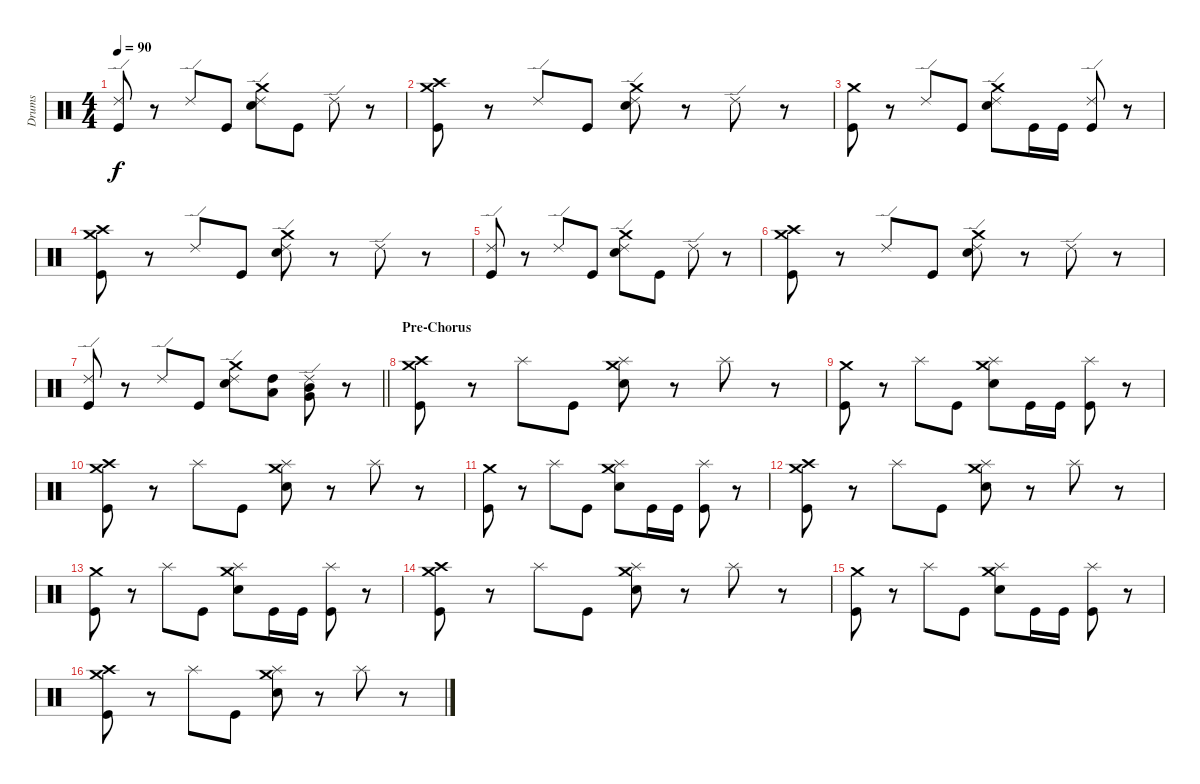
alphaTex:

\track ("Drums" "Drums") {instrument percussion}
\staff {score}
\articulation defaults
\ts (4 4)
\tempo 90
\clef neutral
\ks c
("Ride (edge) 2" "Kick (hit)").8{dy f} r.8 "Ride (edge) 2".8 "Kick (hit)".8 ("Ride (edge) 2" "Snare (hit) 2" "Crash medium (hit)").8 "Kick (hit)".8 "Ride (edge) 2".8 r.8 |
("Crash high (hit)" "Kick (hit)" "Crash medium (hit)").8 r.8 "Ride (edge) 2".8 "Kick (hit)".8 ("Ride (edge) 2" "Snare (hit) 2" "Crash medium (hit)").8 r.8 "Ride (edge) 2".8 r.8 |
("Crash medium (hit)" "Kick (hit)").8 r.8 "Ride (edge) 2".8 "Kick (hit)".8 ("Ride (edge) 2" "Snare (hit) 2" "Crash medium (hit)").8 "Kick (hit)".16 "Kick (hit)".16 ("Ride (edge) 2" "Kick (hit)").8 r.8 |
("Crash high (hit)" "Kick (hit)" "Crash medium (hit)").8 r.8 "Ride (edge) 2".8 "Kick (hit)".8 ("Ride (edge) 2" "Snare (hit) 2" "Crash medium (hit)").8 r.8 "Ride (edge) 2".8 r.8 |
("Ride (edge) 2" "Kick (hit)").8 r.8 "Ride (edge) 2".8 "Kick (hit)".8 ("Ride (edge) 2" "Snare (hit) 2" "Crash medium (hit)").8 "Kick (hit)".8 "Ride (edge) 2".8 r.8 |
("Crash high (hit)" "Kick (hit)" "Crash medium (hit)").8 r.8 "Ride (edge) 2".8 "Kick (hit)".8 ("Ride (edge) 2" "Snare (hit) 2" "Crash medium (hit)").8 r.8 "Ride (edge) 2".8 r.8 |
\barLineRight lightlight
("Ride (edge) 2" "Kick (hit)").8 r.8 "Ride (edge) 2".8 "Kick (hit)".8 ("Ride (edge) 2" "Snare (hit) 2" "Crash medium (hit)").8 ("Low Tom (hit)" "High Tom (hit)").8 ("Ride (edge) 2" "Mid Tom (hit)" "Very Low Tom (hit)").8 r.8 |
\section ("" "Pre-Chorus")
("Crash high (hit)" "Kick (hit)" "Crash medium (hit)").8 r.8 "Splash (hit)".8 "Kick (hit)".8 ("Splash (hit)" "Snare (hit) 2" "Crash medium (hit)").8 r.8 "Splash (hit)".8 r.8 |
("Crash medium (hit)" "Kick (hit)").8 r.8 "Splash (hit)".8 "Kick (hit)".8 ("Splash (hit)" "Snare (hit) 2" "Crash medium (hit)").8 "Kick (hit)".16 "Kick (hit)".16 ("Splash (hit)" "Kick (hit)").8 r.8 |
("Crash high (hit)" "Kick (hit)" "Crash medium (hit)").8 r.8 "Splash (hit)".8 "Kick (hit)".8 ("Splash (hit)" "Snare (hit) 2" "Crash medium (hit)").8 r.8 "Splash (hit)".8 r.8 |
("Crash medium (hit)" "Kick (hit)").8 r.8 "Splash (hit)".8 "Kick (hit)".8 ("Splash (hit)" "Snare (hit) 2" "Crash medium (hit)").8 "Kick (hit)".16 "Kick (hit)".16 ("Splash (hit)" "Kick (hit)").8 r.8 |
("Crash high (hit)" "Kick (hit)" "Crash medium (hit)").8 r.8 "Splash (hit)".8 "Kick (hit)".8 ("Splash (hit)" "Snare (hit) 2" "Crash medium (hit)").8 r.8 "Splash (hit)".8 r.8 |
("Crash medium (hit)" "Kick (hit)").8 r.8 "Splash (hit)".8 "Kick (hit)".8 ("Splash (hit)" "Snare (hit) 2" "Crash medium (hit)").8 "Kick (hit)".16 "Kick (hit)".16 ("Splash (hit)" "Kick (hit)").8 r.8 |
("Crash high (hit)" "Kick (hit)" "Crash medium (hit)").8 r.8 "Splash (hit)".8 "Kick (hit)".8 ("Splash (hit)" "Snare (hit) 2" "Crash medium (hit)").8 r.8 "Splash (hit)".8 r.8 |
("Crash medium (hit)" "Kick (hit)").8 r.8 "Splash (hit)".8 "Kick (hit)".8 ("Splash (hit)" "Snare (hit) 2" "Crash medium (hit)").8 "Kick (hit)".16 "Kick (hit)".16 ("Splash (hit)" "Kick (hit)").8 r.8 |
("Crash high (hit)" "Kick (hit)" "Crash medium (hit)").8 r.8 "Splash (hit)".8 "Kick (hit)".8 ("Splash (hit)" "Snare (hit) 2" "Crash medium (hit)").8 r.8 "Splash (hit)".8 r.8
